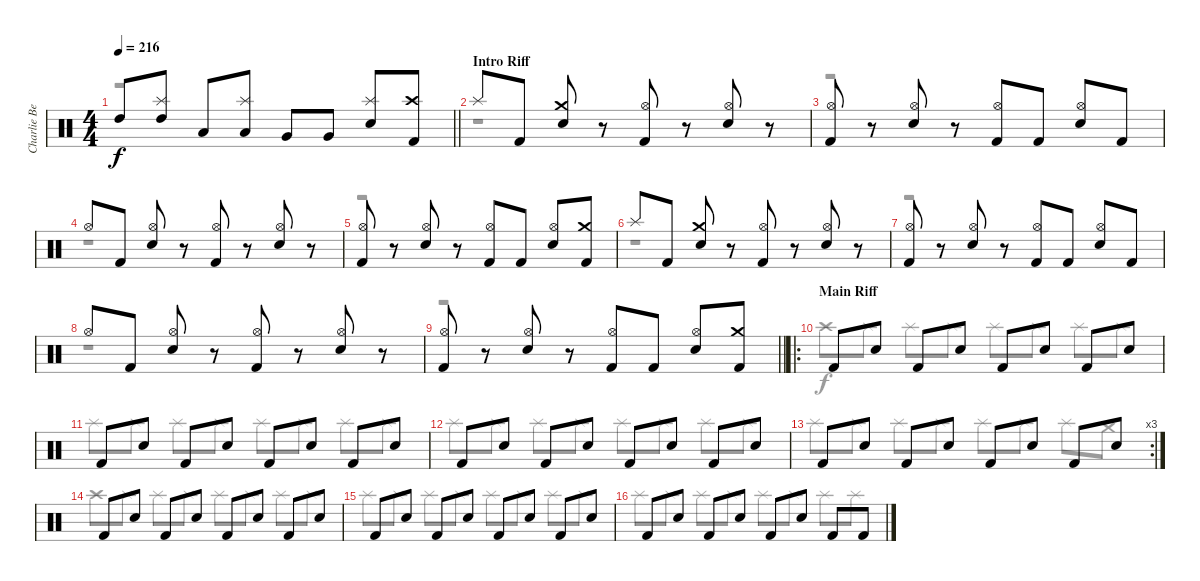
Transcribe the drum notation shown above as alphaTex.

\track ("Charlie Benante" "Charlie Be") {instrument percussion}
\staff {score}
\articulation defaults
\voice
\ts (4 4)
\tempo 216
\clef neutral
\barLineRight lightlight
\ks c "High Tom (hit)".8{dy f}
("Splash (hit)" "High Tom (hit)").8 "Low Tom (hit)".8 ("Splash (hit)" "Low Tom (hit)").8 "Very Low Tom (hit)".8 "Very Low Tom (hit)".8 ("Splash (hit)" "Electric Snare (hit)").8 ("Crash high (hit)" "Kick (hit) 2").8 |
\section ("" "Intro Riff")
"Splash (hit)".8 "Kick (hit) 2".8 ("Crash medium (hit)" "Electric Snare (hit)").8 r.8 ("Hi-Hat (open)" "Kick (hit) 2").8 r.8 ("Hi-Hat (open)" "Electric Snare (hit)").8 r.8 |
("Hi-Hat (open)" "Kick (hit) 2").8 r.8 ("Hi-Hat (open)" "Electric Snare (hit)").8 r.8 ("Hi-Hat (open)" "Kick (hit) 2").8 "Kick (hit) 2".8 ("Hi-Hat (open)" "Electric Snare (hit)").8 "Kick (hit) 2".8 |
"Hi-Hat (open)".8 "Kick (hit) 2".8 ("Hi-Hat (open)" "Electric Snare (hit)").8 r.8 ("Hi-Hat (open)" "Kick (hit) 2").8 r.8 ("Hi-Hat (open)" "Electric Snare (hit)").8 r.8 |
("Hi-Hat (open)" "Kick (hit) 2").8 r.8 ("Hi-Hat (open)" "Electric Snare (hit)").8 r.8 ("Hi-Hat (open)" "Kick (hit) 2").8 "Kick (hit) 2".8 ("Hi-Hat (open)" "Electric Snare (hit)").8 ("Crash medium (hit)" "Kick (hit) 2").8 |
"Splash (hit)".8 "Kick (hit) 2".8 ("Crash medium (hit)" "Electric Snare (hit)").8 r.8 ("Hi-Hat (open)" "Kick (hit) 2").8 r.8 ("Hi-Hat (open)" "Electric Snare (hit)").8 r.8 |
("Hi-Hat (open)" "Kick (hit) 2").8 r.8 ("Hi-Hat (open)" "Electric Snare (hit)").8 r.8 ("Hi-Hat (open)" "Kick (hit) 2").8 "Kick (hit) 2".8 ("Hi-Hat (open)" "Electric Snare (hit)").8 "Kick (hit) 2".8 |
"Hi-Hat (open)".8 "Kick (hit) 2".8 ("Hi-Hat (open)" "Electric Snare (hit)").8 r.8 ("Hi-Hat (open)" "Kick (hit) 2").8 r.8 ("Hi-Hat (open)" "Electric Snare (hit)").8 r.8 |
\barLineRight lightlight
("Hi-Hat (open)" "Kick (hit) 2").8 r.8 ("Hi-Hat (open)" "Electric Snare (hit)").8 r.8 ("Hi-Hat (open)" "Kick (hit) 2").8 "Kick (hit) 2".8 ("Hi-Hat (open)" "Electric Snare (hit)").8 ("Crash medium (hit)" "Kick (hit) 2").8 |
\ro
\section ("" "Main Riff")
"Kick (hit) 2".8 "Electric Snare (hit)".8 "Kick (hit) 2".8 "Electric Snare (hit)".8 "Kick (hit) 2".8 "Electric Snare (hit)".8 "Kick (hit) 2".8 "Electric Snare (hit)".8 |
"Kick (hit) 2".8 "Electric Snare (hit)".8 "Kick (hit) 2".8 "Electric Snare (hit)".8 "Kick (hit) 2".8 "Electric Snare (hit)".8 "Kick (hit) 2".8 "Electric Snare (hit)".8 |
"Kick (hit) 2".8 "Electric Snare (hit)".8 "Kick (hit) 2".8 "Electric Snare (hit)".8 "Kick (hit) 2".8 "Electric Snare (hit)".8 "Kick (hit) 2".8 "Electric Snare (hit)".8 |
\rc 3 "Kick (hit) 2".8 "Electric Snare (hit)".8 "Kick (hit) 2".8 "Electric Snare (hit)".8 "Kick (hit) 2".8 "Electric Snare (hit)".8 "Kick (hit) 2".8 "Electric Snare (hit)".8
|
"Kick (hit) 2".8 "Electric Snare (hit)".8 "Kick (hit) 2".8 "Electric Snare (hit)".8 "Kick (hit) 2".8 "Electric Snare (hit)".8 "Kick (hit) 2".8 "Electric Snare (hit)".8 |
"Kick (hit) 2".8 "Electric Snare (hit)".8 "Kick (hit) 2".8 "Electric Snare (hit)".8 "Kick (hit) 2".8 "Electric Snare (hit)".8 "Kick (hit) 2".8 "Electric Snare (hit)".8 |
"Kick (hit) 2".8 "Electric Snare (hit)".8 "Kick (hit) 2".8 "Electric Snare (hit)".8 "Kick (hit) 2".8 "Electric Snare (hit)".8 "Kick (hit) 2".8 "Kick (hit) 2".8
\voice
\clef neutral
\ottava regular
\simile none
\barLineRight lightlight
\ks c
r.1{dy f} |
r.1 |
r.1 |
r.1 |
r.1 |
r.1 |
r.1 |
r.1 |
\barLineRight lightlight
r.1 |
"Crash high (hit)".8 "Splash (hit)".8 "Splash (hit)".8 "Splash (hit)".8 "Splash (hit)".8 "Splash (hit)".8 "Splash (hit)".8 "Splash (hit)".8 |
"Splash (hit)".8 "Splash (hit)".8 "Splash (hit)".8 "Splash (hit)".8 "Splash (hit)".8 "Splash (hit)".8 "Splash (hit)".8 "Splash (hit)".8 |
"Splash (hit)".8 "Splash (hit)".8 "Splash (hit)".8 "Splash (hit)".8 "Splash (hit)".8 "Splash (hit)".8 "Splash (hit)".8 "Splash (hit)".8 |
"Splash (hit)".8 "Splash (hit)".8 "Splash (hit)".8 "Splash (hit)".8 "Splash (hit)".8 "Splash (hit)".8 "Splash (hit)".8 "Crash medium (hit)".8 |
"Crash high (hit)".8 "Splash (hit)".8 "Splash (hit)".8 "Splash (hit)".8 "Splash (hit)".8 "Splash (hit)".8 "Splash (hit)".8 "Splash (hit)".8 |
"Splash (hit)".8 "Splash (hit)".8 "Splash (hit)".8 "Splash (hit)".8 "Splash (hit)".8 "Splash (hit)".8 "Splash (hit)".8 "Splash (hit)".8 |
"Splash (hit)".8 "Splash (hit)".8 "Splash (hit)".8 "Splash (hit)".8 "Splash (hit)".8 "Splash (hit)".8 "Splash (hit)".8 "Splash (hit)".8
